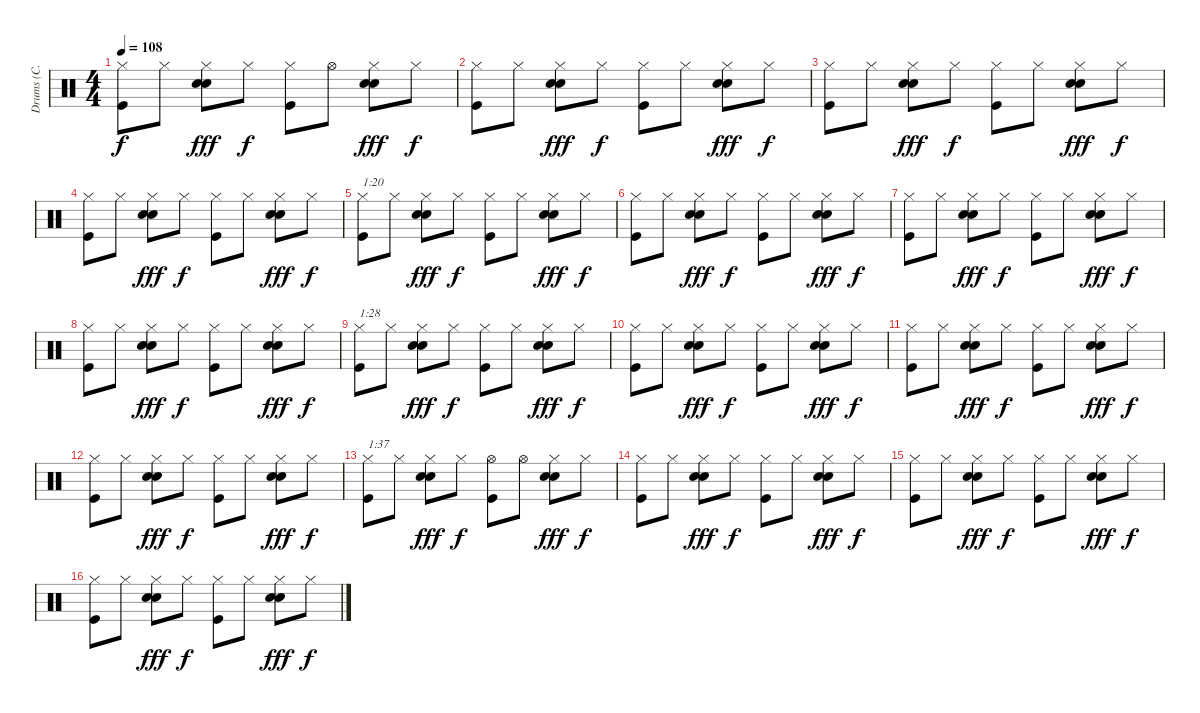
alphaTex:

\track ("Drums (C. Watts)" "Drums (C. ") {instrument percussion}
\staff {score}
\articulation defaults
\ts (4 4)
\tempo 108
\clef neutral
\ks c
("Hi-Hat (closed)" "Kick (hit)").8{dy f} "Hi-Hat (closed)".8 ("Hi-Hat (closed)" "Snare (hit) 2" "Electric Snare (hit)").8{dy fff} "Hi-Hat (closed)".8{dy f} ("Hi-Hat (closed)" "Kick (hit)").8 "Hi-Hat (open)".8 ("Hi-Hat (closed)" "Snare (hit) 2" "Electric Snare (hit)").8{dy fff} "Hi-Hat (closed)".8{dy f} |
("Hi-Hat (closed)" "Kick (hit)").8 "Hi-Hat (closed)".8 ("Hi-Hat (closed)" "Snare (hit) 2" "Electric Snare (hit)").8{dy fff} "Hi-Hat (closed)".8{dy f} ("Hi-Hat (closed)" "Kick (hit)").8 "Hi-Hat (closed)".8 ("Hi-Hat (closed)" "Snare (hit) 2" "Electric Snare (hit)").8{dy fff} "Hi-Hat (closed)".8{dy f} |
("Hi-Hat (closed)" "Kick (hit)").8 "Hi-Hat (closed)".8 ("Hi-Hat (closed)" "Snare (hit) 2" "Electric Snare (hit)").8{dy fff} "Hi-Hat (closed)".8{dy f} ("Hi-Hat (closed)" "Kick (hit)").8 "Hi-Hat (closed)".8 ("Hi-Hat (closed)" "Snare (hit) 2" "Electric Snare (hit)").8{dy fff} "Hi-Hat (closed)".8{dy f} |
("Hi-Hat (closed)" "Kick (hit)").8 "Hi-Hat (closed)".8 ("Hi-Hat (closed)" "Snare (hit) 2" "Electric Snare (hit)").8{dy fff} "Hi-Hat (closed)".8{dy f} ("Hi-Hat (closed)" "Kick (hit)").8 "Hi-Hat (closed)".8 ("Hi-Hat (closed)" "Snare (hit) 2" "Electric Snare (hit)").8{dy fff} "Hi-Hat (closed)".8{dy f} |
("Hi-Hat (closed)" "Kick (hit)").8{txt "1:20"} "Hi-Hat (closed)".8 ("Hi-Hat (closed)" "Snare (hit) 2" "Electric Snare (hit)").8{dy fff} "Hi-Hat (closed)".8{dy f} ("Hi-Hat (closed)" "Kick (hit)").8 "Hi-Hat (closed)".8 ("Hi-Hat (closed)" "Snare (hit) 2" "Electric Snare (hit)").8{dy fff} "Hi-Hat (closed)".8{dy f} |
("Hi-Hat (closed)" "Kick (hit)").8 "Hi-Hat (closed)".8 ("Hi-Hat (closed)" "Snare (hit) 2" "Electric Snare (hit)").8{dy fff} "Hi-Hat (closed)".8{dy f} ("Hi-Hat (closed)" "Kick (hit)").8 "Hi-Hat (closed)".8 ("Hi-Hat (closed)" "Snare (hit) 2" "Electric Snare (hit)").8{dy fff} "Hi-Hat (closed)".8{dy f} |
("Hi-Hat (closed)" "Kick (hit)").8 "Hi-Hat (closed)".8 ("Hi-Hat (closed)" "Snare (hit) 2" "Electric Snare (hit)").8{dy fff} "Hi-Hat (closed)".8{dy f} ("Hi-Hat (closed)" "Kick (hit)").8 "Hi-Hat (closed)".8 ("Hi-Hat (closed)" "Snare (hit) 2" "Electric Snare (hit)").8{dy fff} "Hi-Hat (closed)".8{dy f} |
("Hi-Hat (closed)" "Kick (hit)").8 "Hi-Hat (closed)".8 ("Hi-Hat (closed)" "Snare (hit) 2" "Electric Snare (hit)").8{dy fff} "Hi-Hat (closed)".8{dy f} ("Hi-Hat (closed)" "Kick (hit)").8 "Hi-Hat (closed)".8 ("Hi-Hat (closed)" "Snare (hit) 2" "Electric Snare (hit)").8{dy fff} "Hi-Hat (closed)".8{dy f} |
("Hi-Hat (closed)" "Kick (hit)").8{txt "1:28"} "Hi-Hat (closed)".8 ("Hi-Hat (closed)" "Snare (hit) 2" "Electric Snare (hit)").8{dy fff} "Hi-Hat (closed)".8{dy f} ("Hi-Hat (closed)" "Kick (hit)").8 "Hi-Hat (closed)".8 ("Hi-Hat (closed)" "Snare (hit) 2" "Electric Snare (hit)").8{dy fff} "Hi-Hat (closed)".8{dy f} |
("Hi-Hat (closed)" "Kick (hit)").8 "Hi-Hat (closed)".8 ("Hi-Hat (closed)" "Snare (hit) 2" "Electric Snare (hit)").8{dy fff} "Hi-Hat (closed)".8{dy f} ("Hi-Hat (closed)" "Kick (hit)").8 "Hi-Hat (closed)".8 ("Hi-Hat (closed)" "Snare (hit) 2" "Electric Snare (hit)").8{dy fff} "Hi-Hat (closed)".8{dy f} |
("Hi-Hat (closed)" "Kick (hit)").8 "Hi-Hat (closed)".8 ("Hi-Hat (closed)" "Snare (hit) 2" "Electric Snare (hit)").8{dy fff} "Hi-Hat (closed)".8{dy f} ("Hi-Hat (closed)" "Kick (hit)").8 "Hi-Hat (closed)".8 ("Hi-Hat (closed)" "Snare (hit) 2" "Electric Snare (hit)").8{dy fff} "Hi-Hat (closed)".8{dy f} |
("Hi-Hat (closed)" "Kick (hit)").8 "Hi-Hat (closed)".8 ("Hi-Hat (closed)" "Snare (hit) 2" "Electric Snare (hit)").8{dy fff} "Hi-Hat (closed)".8{dy f} ("Hi-Hat (closed)" "Kick (hit)").8 "Hi-Hat (closed)".8 ("Hi-Hat (closed)" "Snare (hit) 2" "Electric Snare (hit)").8{dy fff} "Hi-Hat (closed)".8{dy f} |
("Hi-Hat (closed)" "Kick (hit)").8{txt "1:37"} "Hi-Hat (closed)".8 ("Hi-Hat (closed)" "Snare (hit) 2" "Electric Snare (hit)").8{dy fff} "Hi-Hat (closed)".8{dy f} ("Hi-Hat (open)" "Kick (hit)").8 "Hi-Hat (open)".8 ("Hi-Hat (closed)" "Snare (hit) 2" "Electric Snare (hit)").8{dy fff} "Hi-Hat (closed)".8{dy f} |
("Hi-Hat (closed)" "Kick (hit)").8 "Hi-Hat (closed)".8 ("Hi-Hat (closed)" "Snare (hit) 2" "Electric Snare (hit)").8{dy fff} "Hi-Hat (closed)".8{dy f} ("Hi-Hat (closed)" "Kick (hit)").8 "Hi-Hat (closed)".8 ("Hi-Hat (closed)" "Snare (hit) 2" "Electric Snare (hit)").8{dy fff} "Hi-Hat (closed)".8{dy f} |
("Hi-Hat (closed)" "Kick (hit)").8 "Hi-Hat (closed)".8 ("Hi-Hat (closed)" "Snare (hit) 2" "Electric Snare (hit)").8{dy fff} "Hi-Hat (closed)".8{dy f} ("Hi-Hat (closed)" "Kick (hit)").8 "Hi-Hat (closed)".8 ("Hi-Hat (closed)" "Snare (hit) 2" "Electric Snare (hit)").8{dy fff} "Hi-Hat (closed)".8{dy f} |
("Hi-Hat (closed)" "Kick (hit)").8 "Hi-Hat (closed)".8 ("Hi-Hat (closed)" "Snare (hit) 2" "Electric Snare (hit)").8{dy fff} "Hi-Hat (closed)".8{dy f} ("Hi-Hat (closed)" "Kick (hit)").8 "Hi-Hat (closed)".8 ("Hi-Hat (closed)" "Snare (hit) 2" "Electric Snare (hit)").8{dy fff} "Hi-Hat (closed)".8{dy f}
